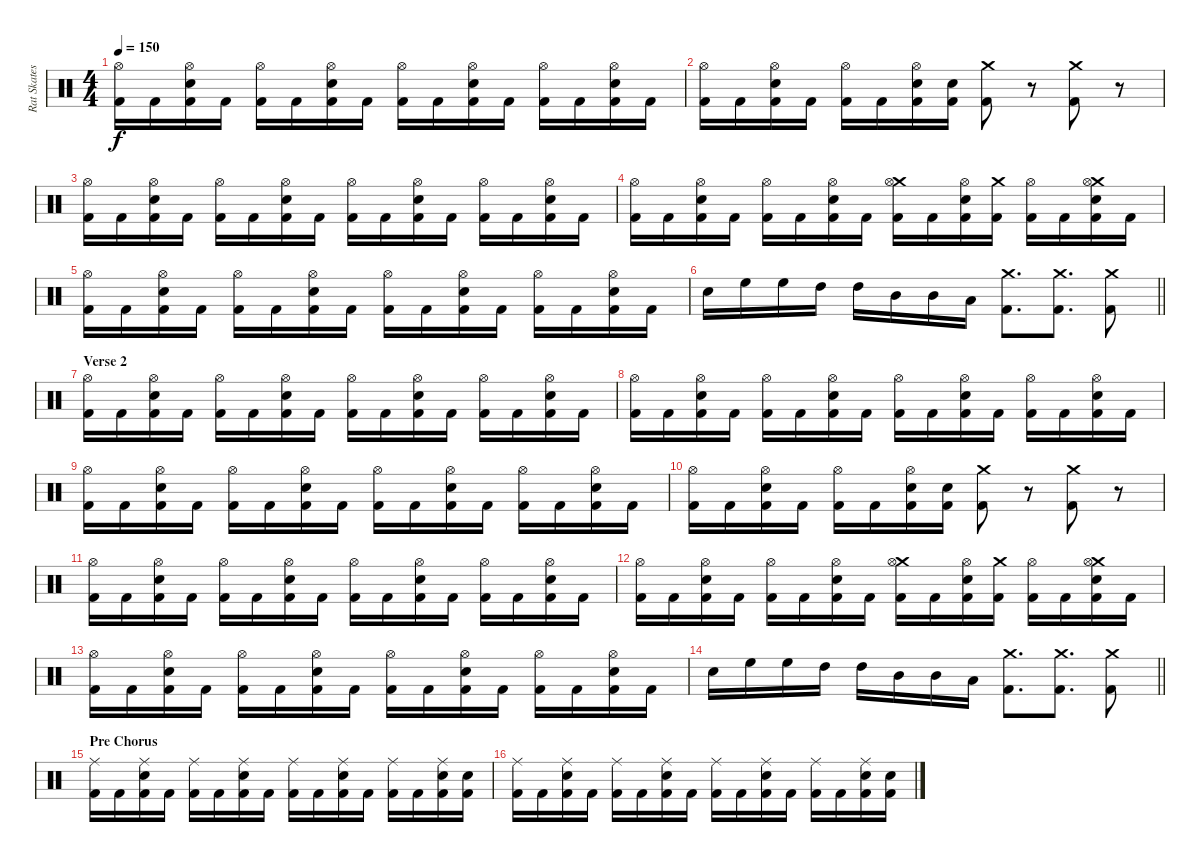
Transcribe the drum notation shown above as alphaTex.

\track ("Rat Skates" "Rat Skates") {instrument percussion}
\staff {score}
\articulation defaults
\ts (4 4)
\tempo 150
\clef neutral
\ks c
("Hi-Hat (open)" "Kick (hit) 2").16{dy f} "Kick (hit) 2".16 ("Hi-Hat (open)" "Snare (hit) 2" "Kick (hit) 2").16 "Kick (hit) 2".16 ("Hi-Hat (open)" "Kick (hit) 2").16 "Kick (hit) 2".16 ("Hi-Hat (open)" "Snare (hit) 2" "Kick (hit) 2").16 "Kick (hit) 2".16 ("Hi-Hat (open)" "Kick (hit) 2").16 "Kick (hit) 2".16 ("Hi-Hat (open)" "Snare (hit) 2" "Kick (hit) 2").16 "Kick (hit) 2".16 ("Hi-Hat (open)" "Kick (hit) 2").16 "Kick (hit) 2".16 ("Hi-Hat (open)" "Snare (hit) 2" "Kick (hit) 2").16 "Kick (hit) 2".16 |
("Hi-Hat (open)" "Kick (hit) 2").16 "Kick (hit) 2".16 ("Hi-Hat (open)" "Snare (hit) 2" "Kick (hit) 2").16 "Kick (hit) 2".16 ("Hi-Hat (open)" "Kick (hit) 2").16 "Kick (hit) 2".16 ("Hi-Hat (open)" "Snare (hit) 2" "Kick (hit) 2").16 ("Snare (hit) 2" "Kick (hit) 2").16 ("Crash medium (hit)" "Kick (hit) 2").8 r.8 ("Crash medium (hit)" "Kick (hit) 2").8 r.8 |
("Hi-Hat (open)" "Kick (hit) 2").16 "Kick (hit) 2".16 ("Hi-Hat (open)" "Snare (hit) 2" "Kick (hit) 2").16 "Kick (hit) 2".16 ("Hi-Hat (open)" "Kick (hit) 2").16 "Kick (hit) 2".16 ("Hi-Hat (open)" "Snare (hit) 2" "Kick (hit) 2").16 "Kick (hit) 2".16 ("Hi-Hat (open)" "Kick (hit) 2").16 "Kick (hit) 2".16 ("Hi-Hat (open)" "Snare (hit) 2" "Kick (hit) 2").16 "Kick (hit) 2".16 ("Hi-Hat (open)" "Kick (hit) 2").16 "Kick (hit) 2".16 ("Hi-Hat (open)" "Snare (hit) 2" "Kick (hit) 2").16 "Kick (hit) 2".16 |
("Hi-Hat (open)" "Kick (hit) 2").16 "Kick (hit) 2".16 ("Hi-Hat (open)" "Snare (hit) 2" "Kick (hit) 2").16 "Kick (hit) 2".16 ("Hi-Hat (open)" "Kick (hit) 2").16 "Kick (hit) 2".16 ("Hi-Hat (open)" "Snare (hit) 2" "Kick (hit) 2").16 "Kick (hit) 2".16 ("Crash medium (hit)" "Hi-Hat (open)" "Kick (hit) 2").16 "Kick (hit) 2".16 ("Hi-Hat (open)" "Snare (hit) 2" "Kick (hit) 2").16 ("Crash medium (hit)" "Kick (hit) 2").16 ("Hi-Hat (open)" "Kick (hit) 2").16 "Kick (hit) 2".16 ("Crash medium (hit)" "Hi-Hat (open)" "Snare (hit) 2" "Kick (hit) 2").16 "Kick (hit) 2".16 |
("Hi-Hat (open)" "Kick (hit) 2").16 "Kick (hit) 2".16 ("Hi-Hat (open)" "Snare (hit) 2" "Kick (hit) 2").16 "Kick (hit) 2".16 ("Hi-Hat (open)" "Kick (hit) 2").16 "Kick (hit) 2".16 ("Hi-Hat (open)" "Snare (hit) 2" "Kick (hit) 2").16 "Kick (hit) 2".16 ("Hi-Hat (open)" "Kick (hit) 2").16 "Kick (hit) 2".16 ("Hi-Hat (open)" "Snare (hit) 2" "Kick (hit) 2").16 "Kick (hit) 2".16 ("Hi-Hat (open)" "Kick (hit) 2").16 "Kick (hit) 2".16 ("Hi-Hat (open)" "Snare (hit) 2" "Kick (hit) 2").16 "Kick (hit) 2".16 |
\barLineRight lightlight "Snare (hit) 2".16 "High Floor Tom (hit)".16 "High Floor Tom (hit)".16 "High Tom (hit)".16 "High Tom (hit)".16 "Mid Tom (hit)".16 "Mid Tom (hit)".16 "Low Tom (hit)".16
("Crash medium (hit)" "Kick (hit) 2").8{d} ("Crash medium (hit)" "Kick (hit) 2").8{d} ("Crash medium (hit)" "Kick (hit) 2").8 |
\section ("" "Verse 2")
("Hi-Hat (open)" "Kick (hit) 2").16 "Kick (hit) 2".16 ("Hi-Hat (open)" "Snare (hit) 2" "Kick (hit) 2").16 "Kick (hit) 2".16 ("Hi-Hat (open)" "Kick (hit) 2").16 "Kick (hit) 2".16 ("Hi-Hat (open)" "Snare (hit) 2" "Kick (hit) 2").16 "Kick (hit) 2".16 ("Hi-Hat (open)" "Kick (hit) 2").16 "Kick (hit) 2".16 ("Hi-Hat (open)" "Snare (hit) 2" "Kick (hit) 2").16 "Kick (hit) 2".16 ("Hi-Hat (open)" "Kick (hit) 2").16 "Kick (hit) 2".16 ("Hi-Hat (open)" "Snare (hit) 2" "Kick (hit) 2").16 "Kick (hit) 2".16 |
("Hi-Hat (open)" "Kick (hit) 2").16 "Kick (hit) 2".16 ("Hi-Hat (open)" "Snare (hit) 2" "Kick (hit) 2").16 "Kick (hit) 2".16 ("Hi-Hat (open)" "Kick (hit) 2").16 "Kick (hit) 2".16 ("Hi-Hat (open)" "Snare (hit) 2" "Kick (hit) 2").16 "Kick (hit) 2".16 ("Hi-Hat (open)" "Kick (hit) 2").16 "Kick (hit) 2".16 ("Hi-Hat (open)" "Snare (hit) 2" "Kick (hit) 2").16 "Kick (hit) 2".16 ("Hi-Hat (open)" "Kick (hit) 2").16 "Kick (hit) 2".16 ("Hi-Hat (open)" "Snare (hit) 2" "Kick (hit) 2").16 "Kick (hit) 2".16 |
("Hi-Hat (open)" "Kick (hit) 2").16 "Kick (hit) 2".16 ("Hi-Hat (open)" "Snare (hit) 2" "Kick (hit) 2").16 "Kick (hit) 2".16 ("Hi-Hat (open)" "Kick (hit) 2").16 "Kick (hit) 2".16 ("Hi-Hat (open)" "Snare (hit) 2" "Kick (hit) 2").16 "Kick (hit) 2".16 ("Hi-Hat (open)" "Kick (hit) 2").16 "Kick (hit) 2".16 ("Hi-Hat (open)" "Snare (hit) 2" "Kick (hit) 2").16 "Kick (hit) 2".16 ("Hi-Hat (open)" "Kick (hit) 2").16 "Kick (hit) 2".16 ("Hi-Hat (open)" "Snare (hit) 2" "Kick (hit) 2").16 "Kick (hit) 2".16 |
("Hi-Hat (open)" "Kick (hit) 2").16 "Kick (hit) 2".16 ("Hi-Hat (open)" "Snare (hit) 2" "Kick (hit) 2").16 "Kick (hit) 2".16 ("Hi-Hat (open)" "Kick (hit) 2").16 "Kick (hit) 2".16 ("Hi-Hat (open)" "Snare (hit) 2" "Kick (hit) 2").16 ("Snare (hit) 2" "Kick (hit) 2").16 ("Crash medium (hit)" "Kick (hit) 2").8 r.8 ("Crash medium (hit)" "Kick (hit) 2").8 r.8 |
("Hi-Hat (open)" "Kick (hit) 2").16 "Kick (hit) 2".16 ("Hi-Hat (open)" "Snare (hit) 2" "Kick (hit) 2").16 "Kick (hit) 2".16 ("Hi-Hat (open)" "Kick (hit) 2").16 "Kick (hit) 2".16 ("Hi-Hat (open)" "Snare (hit) 2" "Kick (hit) 2").16 "Kick (hit) 2".16 ("Hi-Hat (open)" "Kick (hit) 2").16 "Kick (hit) 2".16 ("Hi-Hat (open)" "Snare (hit) 2" "Kick (hit) 2").16 "Kick (hit) 2".16 ("Hi-Hat (open)" "Kick (hit) 2").16 "Kick (hit) 2".16 ("Hi-Hat (open)" "Snare (hit) 2" "Kick (hit) 2").16 "Kick (hit) 2".16 |
("Hi-Hat (open)" "Kick (hit) 2").16 "Kick (hit) 2".16 ("Hi-Hat (open)" "Snare (hit) 2" "Kick (hit) 2").16 "Kick (hit) 2".16 ("Hi-Hat (open)" "Kick (hit) 2").16 "Kick (hit) 2".16 ("Hi-Hat (open)" "Snare (hit) 2" "Kick (hit) 2").16 "Kick (hit) 2".16 ("Crash medium (hit)" "Hi-Hat (open)" "Kick (hit) 2").16 "Kick (hit) 2".16 ("Hi-Hat (open)" "Snare (hit) 2" "Kick (hit) 2").16 ("Crash medium (hit)" "Kick (hit) 2").16 ("Hi-Hat (open)" "Kick (hit) 2").16 "Kick (hit) 2".16 ("Crash medium (hit)" "Hi-Hat (open)" "Snare (hit) 2" "Kick (hit) 2").16 "Kick (hit) 2".16 |
("Hi-Hat (open)" "Kick (hit) 2").16 "Kick (hit) 2".16 ("Hi-Hat (open)" "Snare (hit) 2" "Kick (hit) 2").16 "Kick (hit) 2".16 ("Hi-Hat (open)" "Kick (hit) 2").16 "Kick (hit) 2".16 ("Hi-Hat (open)" "Snare (hit) 2" "Kick (hit) 2").16 "Kick (hit) 2".16 ("Hi-Hat (open)" "Kick (hit) 2").16 "Kick (hit) 2".16 ("Hi-Hat (open)" "Snare (hit) 2" "Kick (hit) 2").16 "Kick (hit) 2".16 ("Hi-Hat (open)" "Kick (hit) 2").16 "Kick (hit) 2".16 ("Hi-Hat (open)" "Snare (hit) 2" "Kick (hit) 2").16 "Kick (hit) 2".16 |
\barLineRight lightlight "Snare (hit) 2".16 "High Floor Tom (hit)".16 "High Floor Tom (hit)".16 "High Tom (hit)".16 "High Tom (hit)".16 "Mid Tom (hit)".16 "Mid Tom (hit)".16 "Low Tom (hit)".16
("Crash medium (hit)" "Kick (hit) 2").8{d} ("Crash medium (hit)" "Kick (hit) 2").8{d} ("Crash medium (hit)" "Kick (hit) 2").8 |
\section ("" "Pre Chorus")
("Ride (middle)" "Kick (hit) 2").16 "Kick (hit) 2".16 ("Ride (middle)" "Snare (hit) 2" "Kick (hit) 2").16 "Kick (hit) 2".16 ("Ride (middle)" "Kick (hit) 2").16 "Kick (hit) 2".16 ("Ride (middle)" "Snare (hit) 2" "Kick (hit) 2").16 "Kick (hit) 2".16 ("Ride (middle)" "Kick (hit) 2").16 "Kick (hit) 2".16 ("Ride (middle)" "Snare (hit) 2" "Kick (hit) 2").16 "Kick (hit) 2".16 ("Ride (middle)" "Kick (hit) 2").16 "Kick (hit) 2".16 ("Ride (middle)" "Snare (hit) 2" "Kick (hit) 2").16 ("Snare (hit) 2" "Kick (hit) 2").16 |
("Ride (middle)" "Kick (hit) 2").16 "Kick (hit) 2".16 ("Ride (middle)" "Snare (hit) 2" "Kick (hit) 2").16 "Kick (hit) 2".16 ("Ride (middle)" "Kick (hit) 2").16 "Kick (hit) 2".16 ("Ride (middle)" "Snare (hit) 2" "Kick (hit) 2").16 "Kick (hit) 2".16 ("Ride (middle)" "Kick (hit) 2").16 "Kick (hit) 2".16 ("Ride (middle)" "Snare (hit) 2" "Kick (hit) 2").16 "Kick (hit) 2".16 ("Ride (middle)" "Kick (hit) 2").16 "Kick (hit) 2".16 ("Ride (middle)" "Snare (hit) 2" "Kick (hit) 2").16 ("Snare (hit) 2" "Kick (hit) 2").16
